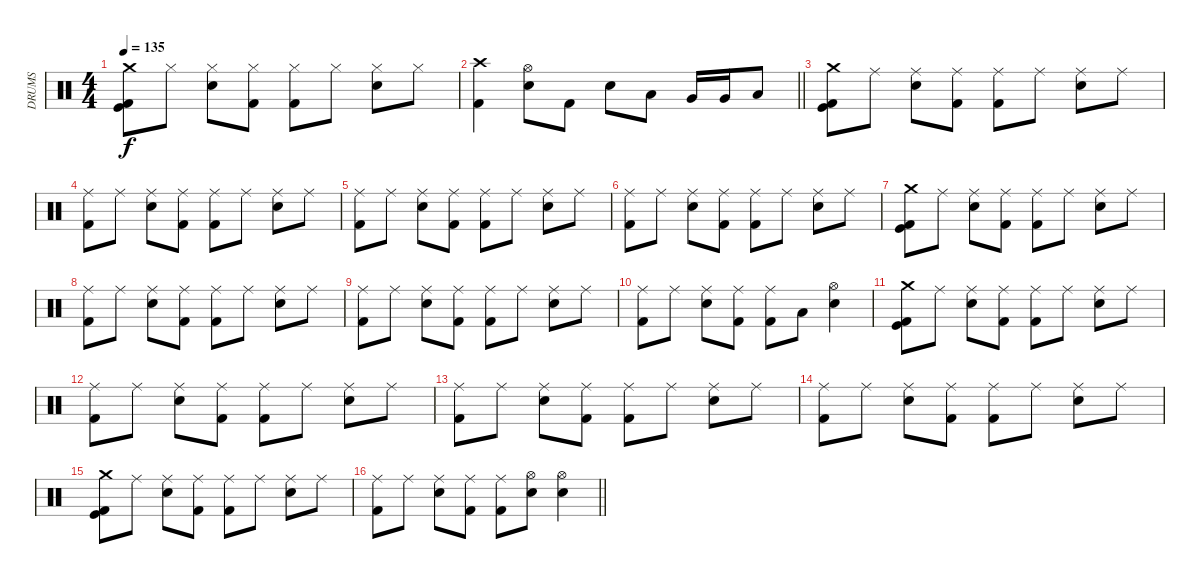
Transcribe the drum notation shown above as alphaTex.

\track ("DRUMS" "DRUMS") {instrument percussion}
\staff {score}
\articulation defaults
\ts (4 4)
\tempo 135
\clef neutral
\ks c
("Crash medium (hit)" "Kick (hit) 2" "Kick (hit)").8{dy f} "Hi-Hat (closed)".8 ("Hi-Hat (closed)" "Electric Snare (hit)").8 ("Hi-Hat (closed)" "Kick (hit) 2").8 ("Hi-Hat (closed)" "Kick (hit) 2").8 "Hi-Hat (closed)".8 ("Hi-Hat (closed)" "Electric Snare (hit)").8 "Hi-Hat (closed)".8 |
\barLineRight lightlight
("Crash high (hit)" "Kick (hit) 2").4 ("Hi-Hat (open)" "Electric Snare (hit)").8 "Kick (hit) 2".8 "Electric Snare (hit)".8 "Low Tom (hit)".8 "Very Low Tom (hit)".16 "Very Low Tom (hit)".16 "Low Floor Tom (hit)".8 |
("Crash medium (hit)" "Kick (hit) 2" "Kick (hit)").8 "Ride (middle)".8 ("Ride (middle)" "Electric Snare (hit)").8 ("Ride (middle)" "Kick (hit) 2").8 ("Ride (middle)" "Kick (hit) 2").8 "Ride (middle)".8 ("Ride (middle)" "Electric Snare (hit)").8 "Ride (middle)".8 |
("Ride (middle)" "Kick (hit) 2").8 "Ride (middle)".8 ("Ride (middle)" "Electric Snare (hit)").8 ("Ride (middle)" "Kick (hit) 2").8 ("Ride (middle)" "Kick (hit) 2").8 "Ride (middle)".8 ("Ride (middle)" "Electric Snare (hit)").8 "Ride (middle)".8 |
("Ride (middle)" "Kick (hit) 2").8 "Ride (middle)".8 ("Ride (middle)" "Electric Snare (hit)").8 ("Ride (middle)" "Kick (hit) 2").8 ("Ride (middle)" "Kick (hit) 2").8 "Ride (middle)".8 ("Ride (middle)" "Electric Snare (hit)").8 "Ride (middle)".8 |
("Ride (middle)" "Kick (hit) 2").8 "Ride (middle)".8 ("Ride (middle)" "Electric Snare (hit)").8 ("Ride (middle)" "Kick (hit) 2").8 ("Ride (middle)" "Kick (hit) 2").8 "Ride (middle)".8 ("Ride (middle)" "Electric Snare (hit)").8 "Ride (middle)".8 |
("Crash medium (hit)" "Kick (hit) 2" "Kick (hit)").8 "Ride (middle)".8 ("Ride (middle)" "Electric Snare (hit)").8 ("Ride (middle)" "Kick (hit) 2").8 ("Ride (middle)" "Kick (hit) 2").8 "Ride (middle)".8 ("Ride (middle)" "Electric Snare (hit)").8 "Ride (middle)".8 |
("Ride (middle)" "Kick (hit) 2").8 "Ride (middle)".8 ("Ride (middle)" "Electric Snare (hit)").8 ("Ride (middle)" "Kick (hit) 2").8 ("Ride (middle)" "Kick (hit) 2").8 "Ride (middle)".8 ("Ride (middle)" "Electric Snare (hit)").8 "Ride (middle)".8 |
("Ride (middle)" "Kick (hit) 2").8 "Ride (middle)".8 ("Ride (middle)" "Electric Snare (hit)").8 ("Ride (middle)" "Kick (hit) 2").8 ("Ride (middle)" "Kick (hit) 2").8 "Ride (middle)".8 ("Ride (middle)" "Electric Snare (hit)").8 "Ride (middle)".8 |
("Ride (middle)" "Kick (hit) 2").8 "Ride (middle)".8 ("Ride (middle)" "Electric Snare (hit)").8 ("Ride (middle)" "Kick (hit) 2").8 ("Ride (middle)" "Kick (hit) 2").8 "Low Tom (hit)".8 ("Hi-Hat (open)" "Electric Snare (hit)").4 |
("Crash medium (hit)" "Kick (hit) 2" "Kick (hit)").8 "Ride (middle)".8 ("Ride (middle)" "Electric Snare (hit)").8 ("Ride (middle)" "Kick (hit) 2").8 ("Ride (middle)" "Kick (hit) 2").8 "Ride (middle)".8 ("Ride (middle)" "Electric Snare (hit)").8 "Ride (middle)".8 |
("Ride (middle)" "Kick (hit) 2").8 "Ride (middle)".8 ("Ride (middle)" "Electric Snare (hit)").8 ("Ride (middle)" "Kick (hit) 2").8 ("Ride (middle)" "Kick (hit) 2").8 "Ride (middle)".8 ("Ride (middle)" "Electric Snare (hit)").8 "Ride (middle)".8 |
("Ride (middle)" "Kick (hit) 2").8 "Ride (middle)".8 ("Ride (middle)" "Electric Snare (hit)").8 ("Ride (middle)" "Kick (hit) 2").8 ("Ride (middle)" "Kick (hit) 2").8 "Ride (middle)".8 ("Ride (middle)" "Electric Snare (hit)").8 "Ride (middle)".8 |
("Ride (middle)" "Kick (hit) 2").8 "Ride (middle)".8 ("Ride (middle)" "Electric Snare (hit)").8 ("Ride (middle)" "Kick (hit) 2").8 ("Ride (middle)" "Kick (hit) 2").8 "Ride (middle)".8 ("Ride (middle)" "Electric Snare (hit)").8 "Ride (middle)".8 |
("Crash medium (hit)" "Kick (hit) 2" "Kick (hit)").8 "Ride (middle)".8 ("Ride (middle)" "Electric Snare (hit)").8 ("Ride (middle)" "Kick (hit) 2").8 ("Ride (middle)" "Kick (hit) 2").8 "Ride (middle)".8 ("Ride (middle)" "Electric Snare (hit)").8 "Ride (middle)".8 |
\barLineRight lightlight
("Ride (middle)" "Kick (hit) 2").8 "Ride (middle)".8 ("Ride (middle)" "Electric Snare (hit)").8 ("Ride (middle)" "Kick (hit) 2").8 ("Ride (middle)" "Kick (hit) 2").8 ("Hi-Hat (open)" "Electric Snare (hit)").8 ("Hi-Hat (open)" "Electric Snare (hit)").4
